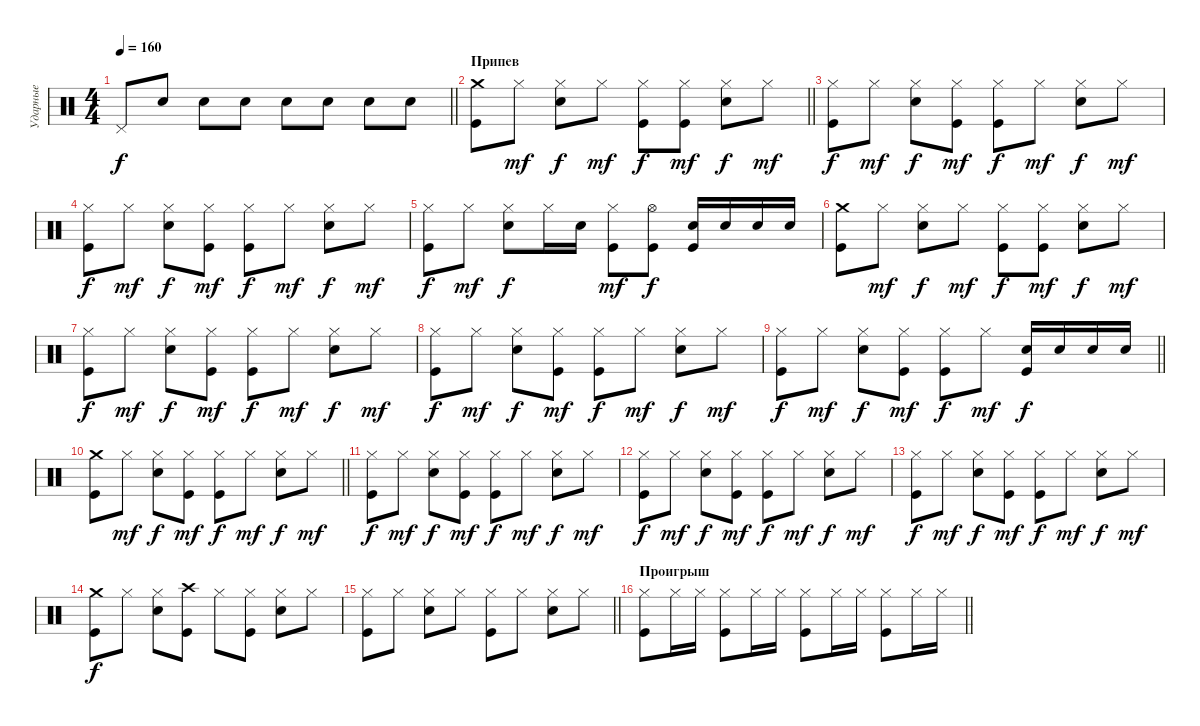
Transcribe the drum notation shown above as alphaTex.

\track ("Ударные" "Ударные") {instrument percussion}
\staff {score}
\articulation defaults
\ts (4 4)
\tempo 160
\clef neutral
\barLineRight lightlight
\ks c "Pedal Hi-Hat (hit)".8{dy f} "Electric Snare (hit)".8 "Electric Snare (hit)".8 "Electric Snare (hit)".8 "Electric Snare (hit)".8 "Electric Snare (hit)".8 "Electric Snare (hit)".8 "Electric Snare (hit)".8
|
\section ("" "Припев")
\barLineRight lightlight
("Crash medium (hit)" "Kick (hit)").8 "Hi-Hat (closed)".8{dy mf} ("Hi-Hat (closed)" "Electric Snare (hit)").8{dy f} "Hi-Hat (closed)".8{dy mf} ("Hi-Hat (closed)" "Kick (hit)").8{dy f} ("Hi-Hat (closed)" "Kick (hit)").8{dy mf} ("Hi-Hat (closed)" "Electric Snare (hit)").8{dy f} "Hi-Hat (closed)".8{dy mf} |
("Hi-Hat (closed)" "Kick (hit)").8{dy f} "Hi-Hat (closed)".8{dy mf} ("Hi-Hat (closed)" "Electric Snare (hit)").8{dy f} ("Hi-Hat (closed)" "Kick (hit)").8{dy mf} ("Hi-Hat (closed)" "Kick (hit)").8{dy f} "Hi-Hat (closed)".8{dy mf} ("Hi-Hat (closed)" "Electric Snare (hit)").8{dy f} "Hi-Hat (closed)".8{dy mf} |
("Hi-Hat (closed)" "Kick (hit)").8{dy f} "Hi-Hat (closed)".8{dy mf} ("Hi-Hat (closed)" "Electric Snare (hit)").8{dy f} ("Hi-Hat (closed)" "Kick (hit)").8{dy mf} ("Hi-Hat (closed)" "Kick (hit)").8{dy f} "Hi-Hat (closed)".8{dy mf} ("Hi-Hat (closed)" "Electric Snare (hit)").8{dy f} "Hi-Hat (closed)".8{dy mf} |
("Hi-Hat (closed)" "Kick (hit)").8{dy f} "Hi-Hat (closed)".8{dy mf} ("Hi-Hat (closed)" "Electric Snare (hit)").8{dy f} "Hi-Hat (closed)".16 "Electric Snare (hit)".16 ("Hi-Hat (closed)" "Kick (hit)").8{dy mf} ("Hi-Hat (open)" "Kick (hit)").8{dy f} ("Electric Snare (hit)" "Kick (hit)").16 "Electric Snare (hit)".16 "Electric Snare (hit)".16 "Electric Snare (hit)".16 |
("Crash medium (hit)" "Kick (hit)").8 "Hi-Hat (closed)".8{dy mf} ("Hi-Hat (closed)" "Electric Snare (hit)").8{dy f} "Hi-Hat (closed)".8{dy mf} ("Hi-Hat (closed)" "Kick (hit)").8{dy f} ("Hi-Hat (closed)" "Kick (hit)").8{dy mf} ("Hi-Hat (closed)" "Electric Snare (hit)").8{dy f} "Hi-Hat (closed)".8{dy mf} |
("Hi-Hat (closed)" "Kick (hit)").8{dy f} "Hi-Hat (closed)".8{dy mf} ("Hi-Hat (closed)" "Electric Snare (hit)").8{dy f} ("Hi-Hat (closed)" "Kick (hit)").8{dy mf} ("Hi-Hat (closed)" "Kick (hit)").8{dy f} "Hi-Hat (closed)".8{dy mf} ("Hi-Hat (closed)" "Electric Snare (hit)").8{dy f} "Hi-Hat (closed)".8{dy mf} |
("Hi-Hat (closed)" "Kick (hit)").8{dy f} "Hi-Hat (closed)".8{dy mf} ("Hi-Hat (closed)" "Electric Snare (hit)").8{dy f} ("Hi-Hat (closed)" "Kick (hit)").8{dy mf} ("Hi-Hat (closed)" "Kick (hit)").8{dy f} "Hi-Hat (closed)".8{dy mf} ("Hi-Hat (closed)" "Electric Snare (hit)").8{dy f} "Hi-Hat (closed)".8{dy mf} |
\barLineRight lightlight
("Hi-Hat (closed)" "Kick (hit)").8{dy f} "Hi-Hat (closed)".8{dy mf} ("Hi-Hat (closed)" "Electric Snare (hit)").8{dy f} ("Hi-Hat (closed)" "Kick (hit)").8{dy mf} ("Hi-Hat (closed)" "Kick (hit)").8{dy f} "Hi-Hat (closed)".8{dy mf} ("Electric Snare (hit)" "Kick (hit)").16{dy f} "Electric Snare (hit)".16 "Electric Snare (hit)".16 "Electric Snare (hit)".16 |
\section ("" " ")
\barLineRight lightlight
("Crash medium (hit)" "Kick (hit)").8 "Hi-Hat (closed)".8{dy mf} ("Hi-Hat (closed)" "Electric Snare (hit)").8{dy f} ("Hi-Hat (closed)" "Kick (hit)").8{dy mf} ("Hi-Hat (closed)" "Kick (hit)").8{dy f} "Hi-Hat (closed)".8{dy mf} ("Hi-Hat (closed)" "Electric Snare (hit)").8{dy f} "Hi-Hat (closed)".8{dy mf} |
("Hi-Hat (closed)" "Kick (hit)").8{dy f} "Hi-Hat (closed)".8{dy mf} ("Hi-Hat (closed)" "Electric Snare (hit)").8{dy f} ("Hi-Hat (closed)" "Kick (hit)").8{dy mf} ("Hi-Hat (closed)" "Kick (hit)").8{dy f} "Hi-Hat (closed)".8{dy mf} ("Hi-Hat (closed)" "Electric Snare (hit)").8{dy f} "Hi-Hat (closed)".8{dy mf} |
("Hi-Hat (closed)" "Kick (hit)").8{dy f} "Hi-Hat (closed)".8{dy mf} ("Hi-Hat (closed)" "Electric Snare (hit)").8{dy f} ("Hi-Hat (closed)" "Kick (hit)").8{dy mf} ("Hi-Hat (closed)" "Kick (hit)").8{dy f} "Hi-Hat (closed)".8{dy mf} ("Hi-Hat (closed)" "Electric Snare (hit)").8{dy f} "Hi-Hat (closed)".8{dy mf} |
("Hi-Hat (closed)" "Kick (hit)").8{dy f} "Hi-Hat (closed)".8{dy mf} ("Hi-Hat (closed)" "Electric Snare (hit)").8{dy f} ("Hi-Hat (closed)" "Kick (hit)").8{dy mf} ("Hi-Hat (closed)" "Kick (hit)").8{dy f} "Hi-Hat (closed)".8{dy mf} ("Hi-Hat (closed)" "Electric Snare (hit)").8{dy f} "Hi-Hat (closed)".8{dy mf} |
("Crash medium (hit)" "Kick (hit)").8{dy f} "Hi-Hat (closed)".8 ("Hi-Hat (closed)" "Electric Snare (hit)").8 ("Crash high (hit)" "Kick (hit)").8 "Hi-Hat (closed)".8 ("Hi-Hat (closed)" "Kick (hit)").8 ("Hi-Hat (closed)" "Electric Snare (hit)").8 "Hi-Hat (closed)".8 |
\barLineRight lightlight
("Hi-Hat (closed)" "Kick (hit)").8 "Hi-Hat (closed)".8 ("Hi-Hat (closed)" "Electric Snare (hit)").8 "Hi-Hat (closed)".8 ("Hi-Hat (closed)" "Kick (hit)").8 "Hi-Hat (closed)".8 ("Hi-Hat (closed)" "Electric Snare (hit)").8 "Hi-Hat (closed)".8 |
\section ("" "Проигрыш")
\barLineRight lightlight
("Hi-Hat (closed)" "Kick (hit)").8 "Hi-Hat (closed)".16 "Hi-Hat (closed)".16 ("Hi-Hat (closed)" "Kick (hit)").8 "Hi-Hat (closed)".16 "Hi-Hat (closed)".16 ("Hi-Hat (closed)" "Kick (hit)").8 "Hi-Hat (closed)".16 "Hi-Hat (closed)".16 ("Hi-Hat (closed)" "Kick (hit)").8 "Hi-Hat (closed)".16 "Hi-Hat (closed)".16
